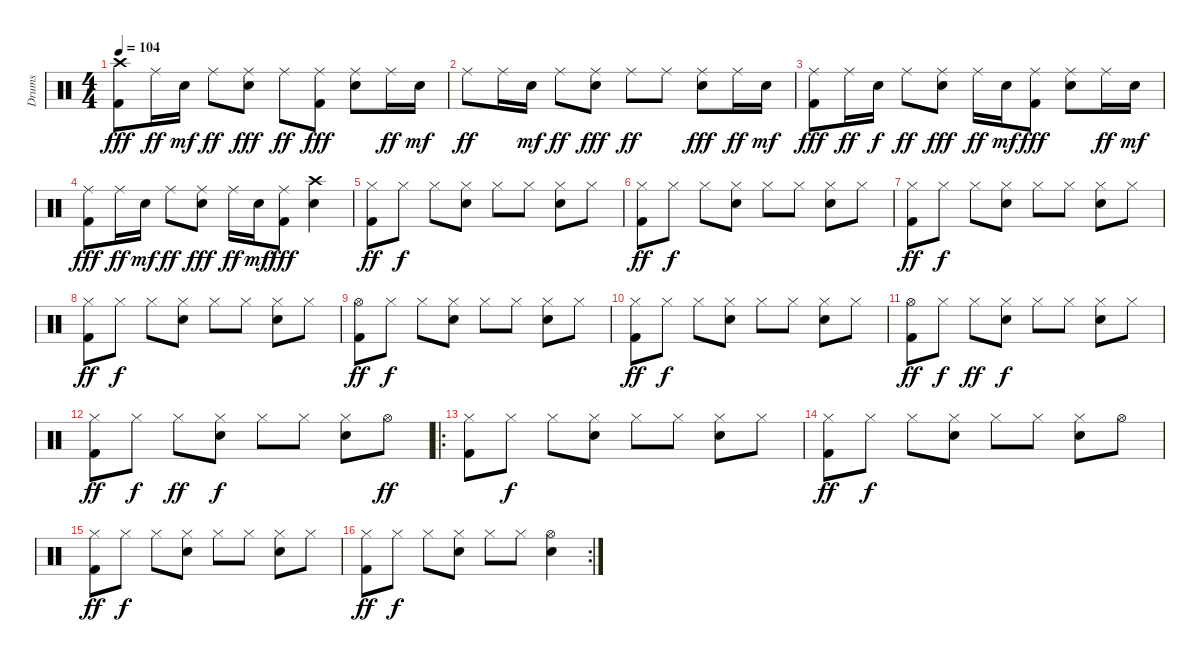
\track ("Drums" "Drums") {instrument percussion}
\staff {score}
\articulation defaults
\ts (4 4)
\tempo 104
\clef neutral
\ks c
("Crash high (hit)" "Kick (hit) 2").8{dy fff} "Ride (middle)".16{dy ff} "Electric Snare (hit)".16{dy mf} "Ride (middle)".8{dy ff} ("Ride (middle)" "Electric Snare (hit)").8{dy fff} "Ride (middle)".8{dy ff} ("Ride (middle)" "Kick (hit) 2").8{dy fff} ("Ride (middle)" "Electric Snare (hit)").8 "Ride (middle)".16{dy ff} "Electric Snare (hit)".16{dy mf} |
"Ride (middle)".8{dy ff} "Ride (middle)".16 "Electric Snare (hit)".16{dy mf} "Ride (middle)".8{dy ff} ("Ride (middle)" "Electric Snare (hit)").8{dy fff} "Ride (middle)".8{dy ff} "Ride (middle)".8 ("Ride (middle)" "Electric Snare (hit)").8{dy fff} "Ride (middle)".16{dy ff} "Electric Snare (hit)".16{dy mf} |
("Ride (middle)" "Kick (hit) 2").8{dy fff} "Ride (middle)".16{dy ff} "Electric Snare (hit)".16{dy f} "Ride (middle)".8{dy ff} ("Ride (middle)" "Electric Snare (hit)").8{dy fff} "Ride (middle)".16{dy ff} "Electric Snare (hit)".16{dy mf} ("Ride (middle)" "Kick (hit) 2").8{dy fff} ("Ride (middle)" "Electric Snare (hit)").8 "Ride (middle)".16{dy ff} "Electric Snare (hit)".16{dy mf} |
("Ride (middle)" "Kick (hit) 2").8{dy fff} "Ride (middle)".16{dy ff} "Electric Snare (hit)".16{dy mf} "Ride (middle)".8{dy ff} ("Ride (middle)" "Electric Snare (hit)").8{dy fff} "Ride (middle)".16{dy ff} "Electric Snare (hit)".16{dy mf} ("Ride (middle)" "Kick (hit) 2").8{dy fff} ("Crash high (hit)" "Electric Snare (hit)").4 |
("Hi-Hat (closed)" "Kick (hit) 2").8{dy ff} "Hi-Hat (closed)".8{dy f} "Hi-Hat (closed)".8 ("Hi-Hat (closed)" "Electric Snare (hit)").8 "Hi-Hat (closed)".8 "Hi-Hat (closed)".8 ("Hi-Hat (closed)" "Electric Snare (hit)").8 "Hi-Hat (closed)".8 |
("Hi-Hat (closed)" "Kick (hit) 2").8{dy ff} "Hi-Hat (closed)".8{dy f} "Hi-Hat (closed)".8 ("Hi-Hat (closed)" "Electric Snare (hit)").8 "Hi-Hat (closed)".8 "Hi-Hat (closed)".8 ("Hi-Hat (closed)" "Electric Snare (hit)").8 "Hi-Hat (closed)".8 |
("Hi-Hat (closed)" "Kick (hit) 2").8{dy ff} "Hi-Hat (closed)".8{dy f} "Hi-Hat (closed)".8 ("Hi-Hat (closed)" "Electric Snare (hit)").8 "Hi-Hat (closed)".8 "Hi-Hat (closed)".8 ("Hi-Hat (closed)" "Electric Snare (hit)").8 "Hi-Hat (closed)".8 |
("Hi-Hat (closed)" "Kick (hit) 2").8{dy ff} "Hi-Hat (closed)".8{dy f} "Hi-Hat (closed)".8 ("Hi-Hat (closed)" "Electric Snare (hit)").8 "Hi-Hat (closed)".8 "Hi-Hat (closed)".8 ("Hi-Hat (closed)" "Electric Snare (hit)").8 "Hi-Hat (closed)".8 |
("Hi-Hat (open)" "Kick (hit) 2").8{dy ff} "Hi-Hat (closed)".8{dy f} "Hi-Hat (closed)".8 ("Hi-Hat (closed)" "Electric Snare (hit)").8 "Hi-Hat (closed)".8 "Hi-Hat (closed)".8 ("Hi-Hat (closed)" "Electric Snare (hit)").8 "Hi-Hat (closed)".8 |
("Hi-Hat (closed)" "Kick (hit) 2").8{dy ff} "Hi-Hat (closed)".8{dy f} "Hi-Hat (closed)".8 ("Hi-Hat (closed)" "Electric Snare (hit)").8 "Hi-Hat (closed)".8 "Hi-Hat (closed)".8 ("Hi-Hat (closed)" "Electric Snare (hit)").8 "Hi-Hat (closed)".8 |
("Hi-Hat (open)" "Kick (hit) 2").8{dy ff} "Hi-Hat (closed)".8{dy f} "Hi-Hat (closed)".8{dy ff} ("Hi-Hat (closed)" "Electric Snare (hit)").8{dy f} "Hi-Hat (closed)".8 "Hi-Hat (closed)".8 ("Hi-Hat (closed)" "Electric Snare (hit)").8 "Hi-Hat (closed)".8 |
("Hi-Hat (closed)" "Kick (hit) 2").8{dy ff} "Hi-Hat (closed)".8{dy f} "Hi-Hat (closed)".8{dy ff} ("Hi-Hat (closed)" "Electric Snare (hit)").8{dy f} "Hi-Hat (closed)".8 "Hi-Hat (closed)".8 ("Hi-Hat (closed)" "Electric Snare (hit)").8 "Hi-Hat (open)".8{dy ff} |
\ro
("Hi-Hat (closed)" "Kick (hit) 2").8 "Hi-Hat (closed)".8{dy f} "Hi-Hat (closed)".8 ("Hi-Hat (closed)" "Electric Snare (hit)").8 "Hi-Hat (closed)".8 "Hi-Hat (closed)".8 ("Hi-Hat (closed)" "Electric Snare (hit)").8 "Hi-Hat (closed)".8 |
("Hi-Hat (closed)" "Kick (hit) 2").8{dy ff} "Hi-Hat (closed)".8{dy f} "Hi-Hat (closed)".8 ("Hi-Hat (closed)" "Electric Snare (hit)").8 "Hi-Hat (closed)".8 "Hi-Hat (closed)".8 ("Hi-Hat (closed)" "Electric Snare (hit)").8 "Hi-Hat (open)".8 |
("Hi-Hat (closed)" "Kick (hit) 2").8{dy ff} "Hi-Hat (closed)".8{dy f} "Hi-Hat (closed)".8 ("Hi-Hat (closed)" "Electric Snare (hit)").8 "Hi-Hat (closed)".8 "Hi-Hat (closed)".8 ("Hi-Hat (closed)" "Electric Snare (hit)").8 "Hi-Hat (closed)".8 |
\rc 2
("Hi-Hat (closed)" "Kick (hit) 2").8{dy ff} "Hi-Hat (closed)".8{dy f} "Hi-Hat (closed)".8 ("Hi-Hat (closed)" "Electric Snare (hit)").8 "Hi-Hat (closed)".8 "Hi-Hat (closed)".8 ("Hi-Hat (open)" "Electric Snare (hit)").4
